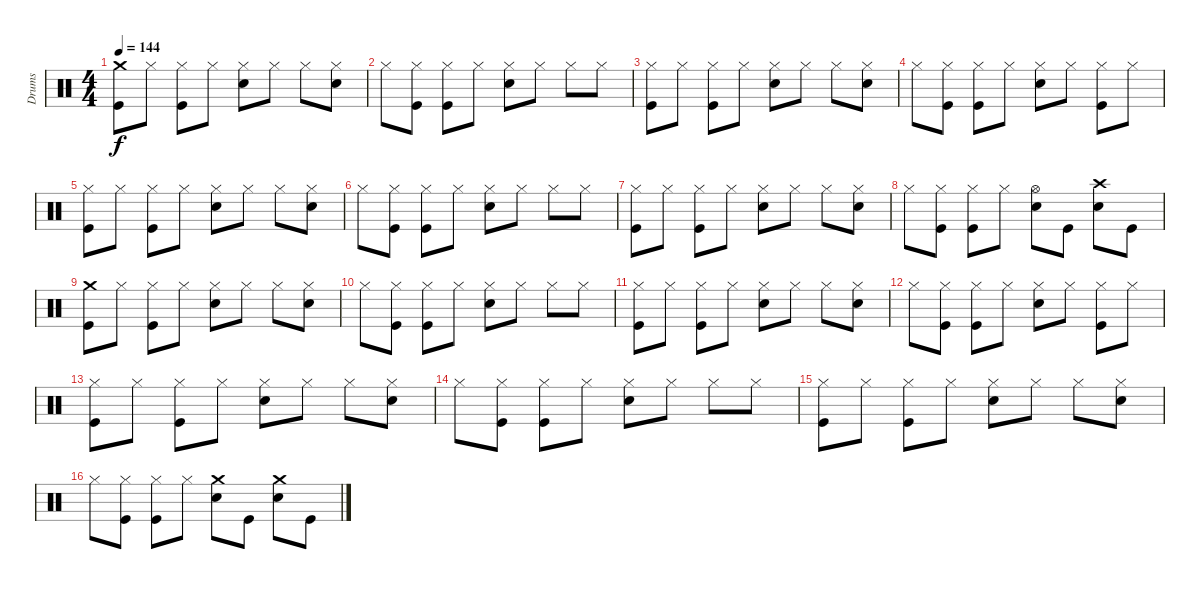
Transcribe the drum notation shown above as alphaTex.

\track ("Drums" "Drums") {instrument percussion}
\staff {score}
\articulation defaults
\ts (4 4)
\tempo 144
\clef neutral
\ks c
("Crash medium (hit)" "Kick (hit)").8{dy f} "Hi-Hat (closed)".8 ("Hi-Hat (closed)" "Kick (hit)").8 "Hi-Hat (closed)".8 ("Hi-Hat (closed)" "Snare (hit) 2").8 "Hi-Hat (closed)".8 "Hi-Hat (closed)".8 ("Hi-Hat (closed)" "Snare (hit) 2").8 |
"Hi-Hat (closed)".8 ("Hi-Hat (closed)" "Kick (hit)").8 ("Hi-Hat (closed)" "Kick (hit)").8 "Hi-Hat (closed)".8 ("Hi-Hat (closed)" "Snare (hit) 2").8 "Hi-Hat (closed)".8 "Hi-Hat (closed)".8 "Hi-Hat (closed)".8 |
("Hi-Hat (closed)" "Kick (hit)").8 "Hi-Hat (closed)".8 ("Hi-Hat (closed)" "Kick (hit)").8 "Hi-Hat (closed)".8 ("Hi-Hat (closed)" "Snare (hit) 2").8 "Hi-Hat (closed)".8 "Hi-Hat (closed)".8 ("Hi-Hat (closed)" "Snare (hit) 2").8 |
"Hi-Hat (closed)".8 ("Hi-Hat (closed)" "Kick (hit)").8 ("Hi-Hat (closed)" "Kick (hit)").8 "Hi-Hat (closed)".8 ("Hi-Hat (closed)" "Snare (hit) 2").8 "Hi-Hat (closed)".8 ("Hi-Hat (closed)" "Kick (hit)").8 "Hi-Hat (closed)".8 |
("Hi-Hat (closed)" "Kick (hit)").8 "Hi-Hat (closed)".8 ("Hi-Hat (closed)" "Kick (hit)").8 "Hi-Hat (closed)".8 ("Hi-Hat (closed)" "Snare (hit) 2").8 "Hi-Hat (closed)".8 "Hi-Hat (closed)".8 ("Hi-Hat (closed)" "Snare (hit) 2").8 |
"Hi-Hat (closed)".8 ("Hi-Hat (closed)" "Kick (hit)").8 ("Hi-Hat (closed)" "Kick (hit)").8 "Hi-Hat (closed)".8 ("Hi-Hat (closed)" "Snare (hit) 2").8 "Hi-Hat (closed)".8 "Hi-Hat (closed)".8 "Hi-Hat (closed)".8 |
("Hi-Hat (closed)" "Kick (hit)").8 "Hi-Hat (closed)".8 ("Hi-Hat (closed)" "Kick (hit)").8 "Hi-Hat (closed)".8 ("Hi-Hat (closed)" "Snare (hit) 2").8 "Hi-Hat (closed)".8 "Hi-Hat (closed)".8 ("Hi-Hat (closed)" "Snare (hit) 2").8 |
"Hi-Hat (closed)".8 ("Hi-Hat (closed)" "Kick (hit)").8 ("Hi-Hat (closed)" "Kick (hit)").8 "Hi-Hat (closed)".8 ("Hi-Hat (open)" "Snare (hit) 2").8 "Kick (hit)".8 ("Crash high (hit)" "Snare (hit) 2").8 "Kick (hit)".8 |
("Crash medium (hit)" "Kick (hit)").8 "Hi-Hat (closed)".8 ("Hi-Hat (closed)" "Kick (hit)").8 "Hi-Hat (closed)".8 ("Hi-Hat (closed)" "Snare (hit) 2").8 "Hi-Hat (closed)".8 "Hi-Hat (closed)".8 ("Hi-Hat (closed)" "Snare (hit) 2").8 |
"Hi-Hat (closed)".8 ("Hi-Hat (closed)" "Kick (hit)").8 ("Hi-Hat (closed)" "Kick (hit)").8 "Hi-Hat (closed)".8 ("Hi-Hat (closed)" "Snare (hit) 2").8 "Hi-Hat (closed)".8 "Hi-Hat (closed)".8 "Hi-Hat (closed)".8 |
("Hi-Hat (closed)" "Kick (hit)").8 "Hi-Hat (closed)".8 ("Hi-Hat (closed)" "Kick (hit)").8 "Hi-Hat (closed)".8 ("Hi-Hat (closed)" "Snare (hit) 2").8 "Hi-Hat (closed)".8 "Hi-Hat (closed)".8 ("Hi-Hat (closed)" "Snare (hit) 2").8 |
"Hi-Hat (closed)".8 ("Hi-Hat (closed)" "Kick (hit)").8 ("Hi-Hat (closed)" "Kick (hit)").8 "Hi-Hat (closed)".8 ("Hi-Hat (closed)" "Snare (hit) 2").8 "Hi-Hat (closed)".8 ("Hi-Hat (closed)" "Kick (hit)").8 "Hi-Hat (closed)".8 |
("Hi-Hat (closed)" "Kick (hit)").8 "Hi-Hat (closed)".8 ("Hi-Hat (closed)" "Kick (hit)").8 "Hi-Hat (closed)".8 ("Hi-Hat (closed)" "Snare (hit) 2").8 "Hi-Hat (closed)".8 "Hi-Hat (closed)".8 ("Hi-Hat (closed)" "Snare (hit) 2").8 |
"Hi-Hat (closed)".8 ("Hi-Hat (closed)" "Kick (hit)").8 ("Hi-Hat (closed)" "Kick (hit)").8 "Hi-Hat (closed)".8 ("Hi-Hat (closed)" "Snare (hit) 2").8 "Hi-Hat (closed)".8 "Hi-Hat (closed)".8 "Hi-Hat (closed)".8 |
("Hi-Hat (closed)" "Kick (hit)").8 "Hi-Hat (closed)".8 ("Hi-Hat (closed)" "Kick (hit)").8 "Hi-Hat (closed)".8 ("Hi-Hat (closed)" "Snare (hit) 2").8 "Hi-Hat (closed)".8 "Hi-Hat (closed)".8 ("Hi-Hat (closed)" "Snare (hit) 2").8 |
"Hi-Hat (closed)".8 ("Hi-Hat (closed)" "Kick (hit)").8 ("Hi-Hat (closed)" "Kick (hit)").8 "Hi-Hat (closed)".8 ("Crash medium (hit)" "Snare (hit) 2").8 "Kick (hit)".8 ("Crash medium (hit)" "Snare (hit) 2").8 "Kick (hit)".8
